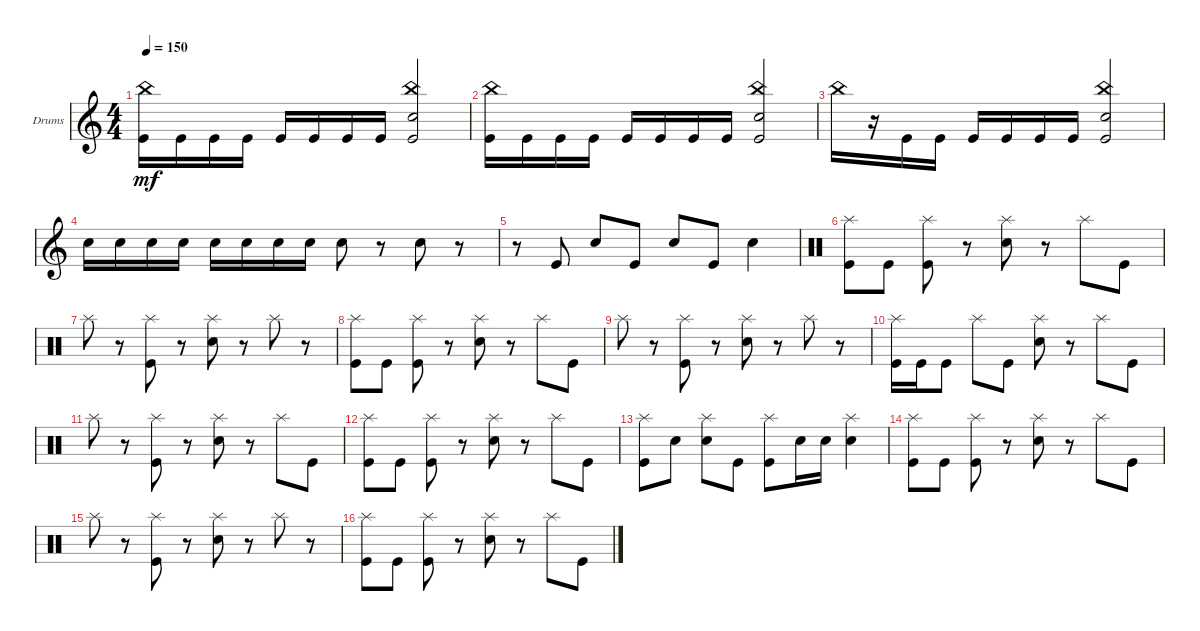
\bracketExtendMode groupsimilarinstruments
\firstSystemTrackNameOrientation horizontal
\otherSystemsTrackNameOrientation horizontal
\track ("Drumkit" "Drums") {instrument percussion}
\staff {score}
\articulation defaults
\ts (4 4)
\tempo 150
\clef g2
\ks c
("Kick (hit)" "China (hit)").16{dy mf} "Kick (hit)".16 "Kick (hit)".16 "Kick (hit)".16 "Kick (hit)".16 "Kick (hit)".16 "Kick (hit)".16 "Kick (hit)".16 ("Kick (hit)" "China (hit)" "Snare (hit) 2").2 |
("Kick (hit)" "China (hit)").16 "Kick (hit)".16 "Kick (hit)".16 "Kick (hit)".16 "Kick (hit)".16 "Kick (hit)".16 "Kick (hit)".16 "Kick (hit)".16 ("Kick (hit)" "China (hit)" "Snare (hit) 2").2 |
"China (hit)".16 r.16 "Kick (hit)".16 "Kick (hit)".16 "Kick (hit)".16 "Kick (hit)".16 "Kick (hit)".16 "Kick (hit)".16 ("Kick (hit)" "China (hit)" "Snare (hit) 2").2 |
"Snare (hit) 2".16 "Snare (hit) 2".16 "Snare (hit) 2".16 "Snare (hit) 2".16 "Snare (hit) 2".16 "Snare (hit) 2".16 "Snare (hit) 2".16 "Snare (hit) 2".16 "Snare (hit) 2".8 r.8 "Snare (hit) 2".8 r.8 |
r.8 "Kick (hit)".8 "Snare (hit) 2".8 "Kick (hit)".8 "Snare (hit) 2".8 "Kick (hit)".8 "Snare (hit) 2".4 |
\clef neutral
("Kick (hit)" "Splash (hit)").8 "Kick (hit)".8 ("Kick (hit)" "Splash (hit)").8 r.8 ("Snare (hit) 2" "Splash (hit)").8 r.8 "Splash (hit)".8 "Kick (hit)".8 |
"Splash (hit)".8 r.8 ("Kick (hit)" "Splash (hit)").8 r.8 ("Snare (hit) 2" "Splash (hit)").8 r.8 "Splash (hit)".8 r.8 |
("Kick (hit)" "Splash (hit)").8 "Kick (hit)".8 ("Kick (hit)" "Splash (hit)").8 r.8 ("Snare (hit) 2" "Splash (hit)").8 r.8 "Splash (hit)".8 "Kick (hit)".8 |
"Splash (hit)".8 r.8 ("Kick (hit)" "Splash (hit)").8 r.8 ("Snare (hit) 2" "Splash (hit)").8 r.8 "Splash (hit)".8 r.8 |
("Kick (hit)" "Splash (hit)").16 "Kick (hit)".16 "Kick (hit)".8 "Splash (hit)".8 "Kick (hit)".8 ("Snare (hit) 2" "Splash (hit)").8 r.8 "Splash (hit)".8 "Kick (hit)".8 |
"Splash (hit)".8 r.8 ("Kick (hit)" "Splash (hit)").8 r.8 ("Snare (hit) 2" "Splash (hit)").8 r.8 "Splash (hit)".8 "Kick (hit)".8 |
("Kick (hit)" "Splash (hit)").8 "Kick (hit)".8 ("Kick (hit)" "Splash (hit)").8 r.8 ("Snare (hit) 2" "Splash (hit)").8 r.8 "Splash (hit)".8 "Kick (hit)".8 |
("Splash (hit)" "Kick (hit)").8 "Snare (hit) 2".8 ("Splash (hit)" "Snare (hit) 2").8 "Kick (hit)".8 ("Splash (hit)" "Kick (hit)").8 "Snare (hit) 2".16 "Snare (hit) 2".16 ("Snare (hit) 2" "Splash (hit)").4 |
("Kick (hit)" "Splash (hit)").8 "Kick (hit)".8 ("Kick (hit)" "Splash (hit)").8 r.8 ("Snare (hit) 2" "Splash (hit)").8 r.8 "Splash (hit)".8 "Kick (hit)".8 |
"Splash (hit)".8 r.8 ("Kick (hit)" "Splash (hit)").8 r.8 ("Snare (hit) 2" "Splash (hit)").8 r.8 "Splash (hit)".8 r.8 |
("Kick (hit)" "Splash (hit)").8 "Kick (hit)".8 ("Kick (hit)" "Splash (hit)").8 r.8 ("Snare (hit) 2" "Splash (hit)").8 r.8 "Splash (hit)".8 "Kick (hit)".8
